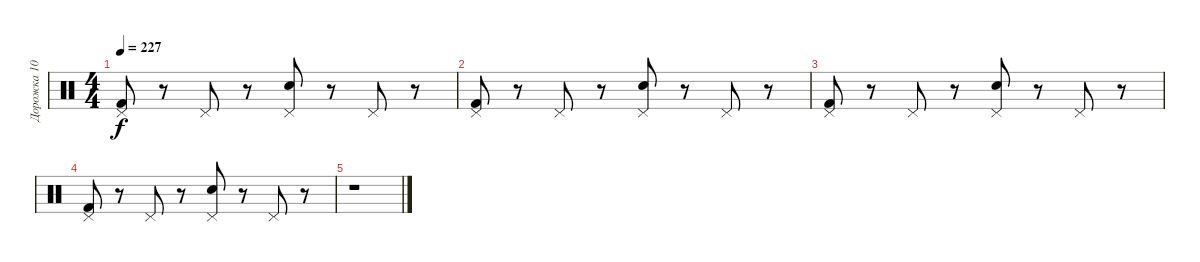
\track ("Дорожка 10" "Дорожка 10") {instrument percussion}
\staff {score}
\articulation defaults
\ts (4 4)
\tempo 227
\clef neutral
\ks c
("Pedal Hi-Hat (hit)" "Kick (hit) 2").8{dy f} r.8 "Pedal Hi-Hat (hit)".8 r.8 ("Pedal Hi-Hat (hit)" "Snare (hit) 2").8 r.8 "Pedal Hi-Hat (hit)".8 r.8 |
("Kick (hit) 2" "Pedal Hi-Hat (hit)").8 r.8 "Pedal Hi-Hat (hit)".8 r.8 ("Pedal Hi-Hat (hit)" "Snare (hit) 2").8 r.8 "Pedal Hi-Hat (hit)".8 r.8 |
("Pedal Hi-Hat (hit)" "Kick (hit) 2").8 r.8 "Pedal Hi-Hat (hit)".8 r.8 ("Pedal Hi-Hat (hit)" "Snare (hit) 2").8 r.8 "Pedal Hi-Hat (hit)".8 r.8 |
("Kick (hit) 2" "Pedal Hi-Hat (hit)").8 r.8 "Pedal Hi-Hat (hit)".8 r.8 ("Pedal Hi-Hat (hit)" "Snare (hit) 2").8 r.8 "Pedal Hi-Hat (hit)".8 r.8 |
r.1
